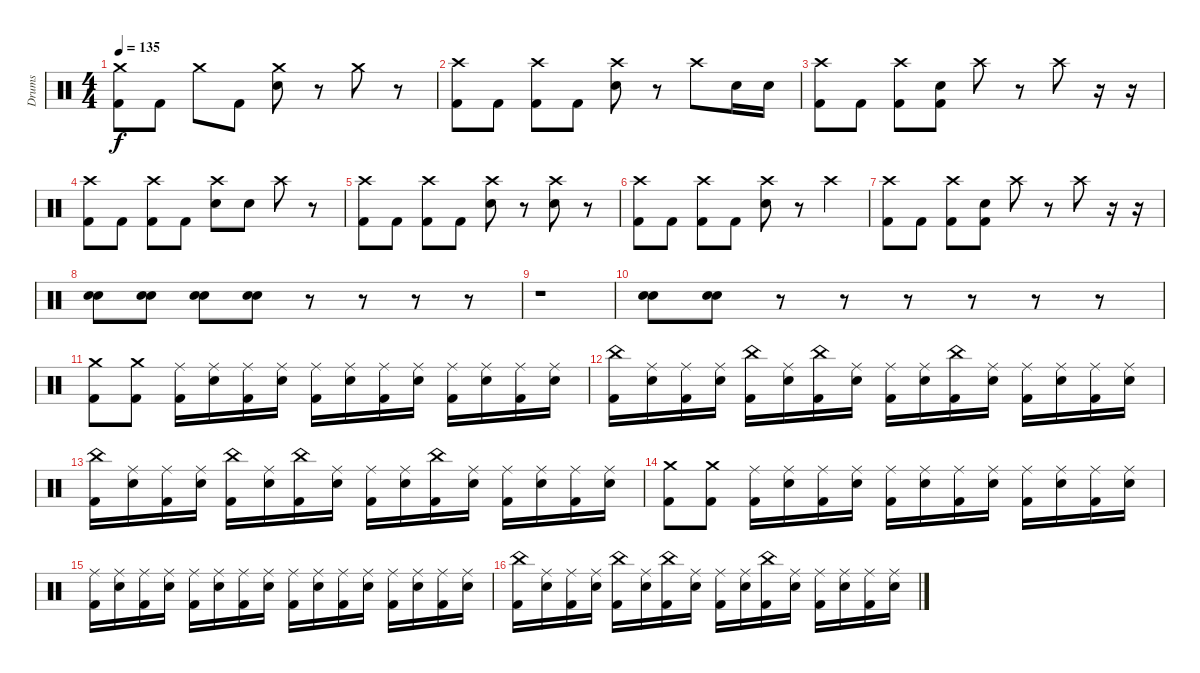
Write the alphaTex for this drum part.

\track ("Drums" "Drums") {instrument percussion}
\staff {score}
\articulation defaults
\ts (4 4)
\tempo 135
\clef neutral
\ks c
("Crash medium (hit)" "Kick (hit) 2").8{dy f} "Kick (hit) 2".8 "Crash medium (hit)".8 "Kick (hit) 2".8 ("Crash medium (hit)" "Electric Snare (hit)").8 r.8 "Crash medium (hit)".8 r.8 |
("Crash high (hit)" "Kick (hit) 2").8 "Kick (hit) 2".8 ("Crash high (hit)" "Kick (hit) 2").8 "Kick (hit) 2".8 ("Crash high (hit)" "Electric Snare (hit)").8 r.8 "Crash high (hit)".8 "Electric Snare (hit)".16 "Electric Snare (hit)".16 |
("Crash high (hit)" "Kick (hit) 2").8 "Kick (hit) 2".8 ("Crash high (hit)" "Kick (hit) 2").8 ("Electric Snare (hit)" "Kick (hit) 2").8 "Crash high (hit)".8 r.8 "Crash high (hit)".8 r.16 r.16 |
("Crash high (hit)" "Kick (hit) 2").8 "Kick (hit) 2".8 ("Crash high (hit)" "Kick (hit) 2").8 "Kick (hit) 2".8 ("Crash high (hit)" "Electric Snare (hit)").8 "Electric Snare (hit)".8 "Crash high (hit)".8 r.8 |
("Crash high (hit)" "Kick (hit) 2").8 "Kick (hit) 2".8 ("Crash high (hit)" "Kick (hit) 2").8 "Kick (hit) 2".8 ("Crash high (hit)" "Electric Snare (hit)").8 r.8 ("Crash high (hit)" "Electric Snare (hit)").8 r.8 |
("Crash high (hit)" "Kick (hit) 2").8 "Kick (hit) 2".8 ("Crash high (hit)" "Kick (hit) 2").8 "Kick (hit) 2".8 ("Crash high (hit)" "Electric Snare (hit)").8 r.8 "Crash high (hit)".4 |
("Crash high (hit)" "Kick (hit) 2").8 "Kick (hit) 2".8 ("Crash high (hit)" "Kick (hit) 2").8 ("Electric Snare (hit)" "Kick (hit) 2").8 "Crash high (hit)".8 r.8 "Crash high (hit)".8 r.16 r.16 |
("Snare (hit) 2" "Electric Snare (hit)").8 ("Snare (hit) 2" "Electric Snare (hit)").8 ("Snare (hit) 2" "Electric Snare (hit)").8 ("Snare (hit) 2" "Electric Snare (hit)").8 r.8 r.8 r.8 r.8 |
r.1 |
("Snare (hit) 2" "Electric Snare (hit)").8{bd 120} ("Snare (hit) 2" "Electric Snare (hit)").8{bd 120} r.8 r.8 r.8 r.8 r.8 r.8 |
("Crash medium (hit)" "Kick (hit) 2").8 ("Crash medium (hit)" "Kick (hit) 2").8 ("Ride (middle)" "Kick (hit) 2").16 ("Ride (middle)" "Snare (hit) 2").16 ("Ride (middle)" "Kick (hit) 2").16 ("Ride (middle)" "Snare (hit) 2").16 ("Ride (middle)" "Kick (hit) 2").16 ("Ride (middle)" "Snare (hit) 2").16 ("Ride (middle)" "Kick (hit) 2").16 ("Ride (middle)" "Snare (hit) 2").16 ("Ride (middle)" "Kick (hit) 2").16 ("Ride (middle)" "Snare (hit) 2").16 ("Ride (middle)" "Kick (hit) 2").16 ("Ride (middle)" "Snare (hit) 2").16 |
("China (hit)" "Kick (hit) 2").16 ("Ride (middle)" "Snare (hit) 2").16 ("Ride (middle)" "Kick (hit) 2").16 ("Ride (middle)" "Snare (hit) 2").16 ("China (hit)" "Kick (hit) 2").16 ("Ride (middle)" "Snare (hit) 2").16 ("China (hit)" "Kick (hit) 2").16 ("Ride (middle)" "Snare (hit) 2").16 ("Ride (middle)" "Kick (hit) 2").16 ("Ride (middle)" "Snare (hit) 2").16 ("China (hit)" "Kick (hit) 2").16 ("Ride (middle)" "Snare (hit) 2").16 ("Ride (middle)" "Kick (hit) 2").16 ("Ride (middle)" "Snare (hit) 2").16 ("Ride (middle)" "Kick (hit) 2").16 ("Ride (middle)" "Snare (hit) 2").16 |
("China (hit)" "Kick (hit) 2").16 ("Ride (middle)" "Snare (hit) 2").16 ("Ride (middle)" "Kick (hit) 2").16 ("Ride (middle)" "Snare (hit) 2").16 ("China (hit)" "Kick (hit) 2").16 ("Ride (middle)" "Snare (hit) 2").16 ("China (hit)" "Kick (hit) 2").16 ("Ride (middle)" "Snare (hit) 2").16 ("Ride (middle)" "Kick (hit) 2").16 ("Ride (middle)" "Snare (hit) 2").16 ("China (hit)" "Kick (hit) 2").16 ("Ride (middle)" "Snare (hit) 2").16 ("Ride (middle)" "Kick (hit) 2").16 ("Ride (middle)" "Snare (hit) 2").16 ("Ride (middle)" "Kick (hit) 2").16 ("Ride (middle)" "Snare (hit) 2").16 |
("Crash medium (hit)" "Kick (hit) 2").8 ("Crash medium (hit)" "Kick (hit) 2").8 ("Ride (middle)" "Kick (hit) 2").16 ("Ride (middle)" "Snare (hit) 2").16 ("Ride (middle)" "Kick (hit) 2").16 ("Ride (middle)" "Snare (hit) 2").16 ("Ride (middle)" "Kick (hit) 2").16 ("Ride (middle)" "Snare (hit) 2").16 ("Ride (middle)" "Kick (hit) 2").16 ("Ride (middle)" "Snare (hit) 2").16 ("Ride (middle)" "Kick (hit) 2").16 ("Ride (middle)" "Snare (hit) 2").16 ("Ride (middle)" "Kick (hit) 2").16 ("Ride (middle)" "Snare (hit) 2").16 |
("Ride (middle)" "Kick (hit) 2").16 ("Ride (middle)" "Snare (hit) 2").16 ("Ride (middle)" "Kick (hit) 2").16 ("Ride (middle)" "Snare (hit) 2").16 ("Ride (middle)" "Kick (hit) 2").16 ("Ride (middle)" "Snare (hit) 2").16 ("Ride (middle)" "Kick (hit) 2").16 ("Ride (middle)" "Snare (hit) 2").16 ("Ride (middle)" "Kick (hit) 2").16 ("Ride (middle)" "Snare (hit) 2").16 ("Ride (middle)" "Kick (hit) 2").16 ("Ride (middle)" "Snare (hit) 2").16 ("Ride (middle)" "Kick (hit) 2").16 ("Ride (middle)" "Snare (hit) 2").16 ("Ride (middle)" "Kick (hit) 2").16 ("Ride (middle)" "Snare (hit) 2").16 |
("China (hit)" "Kick (hit) 2").16 ("Ride (middle)" "Snare (hit) 2").16 ("Ride (middle)" "Kick (hit) 2").16 ("Ride (middle)" "Snare (hit) 2").16 ("China (hit)" "Kick (hit) 2").16 ("Ride (middle)" "Snare (hit) 2").16 ("China (hit)" "Kick (hit) 2").16 ("Ride (middle)" "Snare (hit) 2").16 ("Ride (middle)" "Kick (hit) 2").16 ("Ride (middle)" "Snare (hit) 2").16 ("China (hit)" "Kick (hit) 2").16 ("Ride (middle)" "Snare (hit) 2").16 ("Ride (middle)" "Kick (hit) 2").16 ("Ride (middle)" "Snare (hit) 2").16 ("Ride (middle)" "Kick (hit) 2").16 ("Ride (middle)" "Snare (hit) 2").16
